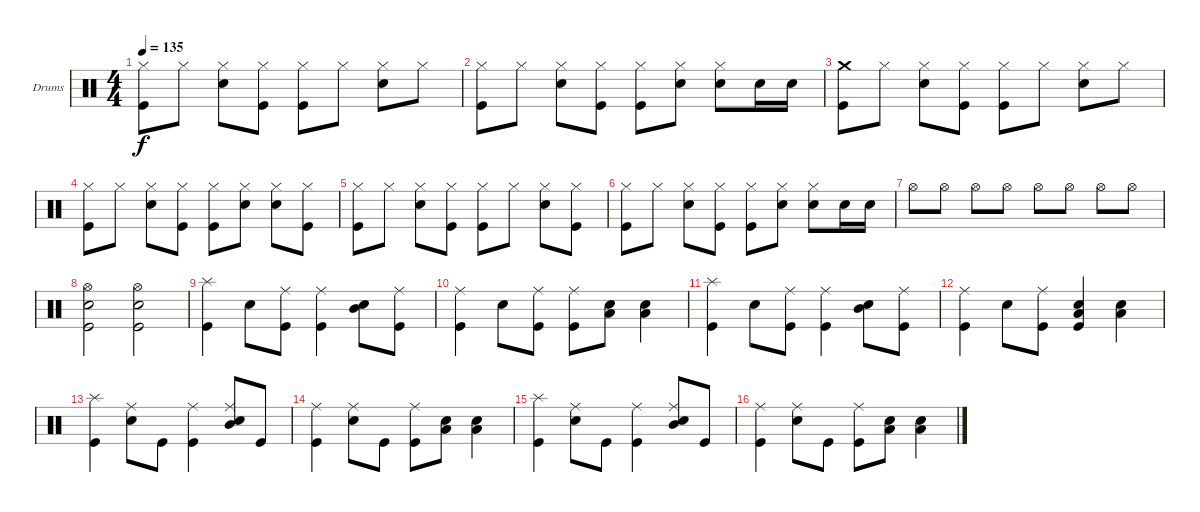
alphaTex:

\bracketExtendMode groupsimilarinstruments
\firstSystemTrackNameOrientation horizontal
\otherSystemsTrackNameOrientation horizontal
\track ("Drumkit" "Drums") {instrument percussion}
\staff {score}
\articulation defaults
\ts (4 4)
\tempo 135
\clef neutral
\ks c
("Hi-Hat (closed)" "Kick (hit)").8{dy f} "Hi-Hat (closed)".8 ("Hi-Hat (closed)" "Snare (hit) 2").8 ("Hi-Hat (closed)" "Kick (hit)").8 ("Hi-Hat (closed)" "Kick (hit)").8 "Hi-Hat (closed)".8 ("Hi-Hat (closed)" "Snare (hit) 2").8 "Hi-Hat (closed)".8 |
("Hi-Hat (closed)" "Kick (hit)").8 "Hi-Hat (closed)".8 ("Hi-Hat (closed)" "Snare (hit) 2").8 ("Hi-Hat (closed)" "Kick (hit)").8 ("Hi-Hat (closed)" "Kick (hit)").8 ("Hi-Hat (closed)" "Snare (hit) 2").8 ("Hi-Hat (closed)" "Snare (hit) 2").8 "Snare (hit) 2".16 "Snare (hit) 2".16 |
("Crash medium (hit)" "Kick (hit)").8 "Hi-Hat (closed)".8 ("Hi-Hat (closed)" "Snare (hit) 2").8 ("Hi-Hat (closed)" "Kick (hit)").8 ("Hi-Hat (closed)" "Kick (hit)").8 "Hi-Hat (closed)".8 ("Hi-Hat (closed)" "Snare (hit) 2").8 "Hi-Hat (closed)".8 |
("Hi-Hat (closed)" "Kick (hit)").8 "Hi-Hat (closed)".8 ("Hi-Hat (closed)" "Snare (hit) 2").8 ("Hi-Hat (closed)" "Kick (hit)").8 ("Hi-Hat (closed)" "Kick (hit)").8 ("Hi-Hat (closed)" "Snare (hit) 2").8 ("Hi-Hat (closed)" "Snare (hit) 2").8 ("Hi-Hat (closed)" "Kick (hit)").8 |
("Hi-Hat (closed)" "Kick (hit)").8 "Hi-Hat (closed)".8 ("Hi-Hat (closed)" "Snare (hit) 2").8 ("Hi-Hat (closed)" "Kick (hit)").8 ("Hi-Hat (closed)" "Kick (hit)").8 "Hi-Hat (closed)".8 ("Hi-Hat (closed)" "Snare (hit) 2").8 ("Hi-Hat (closed)" "Kick (hit)").8 |
("Hi-Hat (closed)" "Kick (hit)").8 "Hi-Hat (closed)".8 ("Hi-Hat (closed)" "Snare (hit) 2").8 ("Hi-Hat (closed)" "Kick (hit)").8 ("Hi-Hat (closed)" "Kick (hit)").8 ("Hi-Hat (closed)" "Snare (hit) 2").8 ("Hi-Hat (closed)" "Snare (hit) 2").8 "Snare (hit) 2".16 "Snare (hit) 2".16 |
"Hi-Hat (open)".8 "Hi-Hat (open)".8 "Hi-Hat (open)".8 "Hi-Hat (open)".8 "Hi-Hat (open)".8 "Hi-Hat (open)".8 "Hi-Hat (open)".8 "Hi-Hat (open)".8 |
("Hi-Hat (open)" "Snare (hit) 2" "Kick (hit)").2 ("Hi-Hat (open)" "Snare (hit) 2" "Kick (hit)").2 |
("Splash (hit)" "Kick (hit)").4 "Snare (hit) 2".8 ("Ride (middle)" "Kick (hit)").8 ("Ride (middle)" "Kick (hit)").4 ("Mid Tom (hit)" "Snare (hit) 2").8 ("Ride (middle)" "Kick (hit)").8 |
("Ride (middle)" "Kick (hit)").4 "Snare (hit) 2".8 ("Ride (middle)" "Kick (hit)").8 ("Ride (middle)" "Kick (hit)").8 ("Low Tom (hit)" "Snare (hit) 2").8 ("Low Tom (hit)" "Snare (hit) 2").4 |
("Splash (hit)" "Kick (hit)").4 "Snare (hit) 2".8 ("Ride (middle)" "Kick (hit)").8 ("Ride (middle)" "Kick (hit)").4 ("Mid Tom (hit)" "Snare (hit) 2").8 ("Ride (middle)" "Kick (hit)").8 |
("Ride (middle)" "Kick (hit)").4 "Snare (hit) 2".8 ("Ride (middle)" "Kick (hit)").8 ("Low Tom (hit)" "Snare (hit) 2" "Kick (hit)").4 ("Low Tom (hit)" "Snare (hit) 2").4 |
("Splash (hit)" "Kick (hit)").4 ("Ride (middle)" "Snare (hit) 2").8 "Kick (hit)".8 ("Ride (middle)" "Kick (hit)").4 ("Ride (middle)" "Mid Tom (hit)" "Snare (hit) 2").8 "Kick (hit)".8 |
("Ride (middle)" "Kick (hit)").4 ("Ride (middle)" "Snare (hit) 2").8 "Kick (hit)".8 ("Ride (middle)" "Kick (hit)").8 ("Low Tom (hit)" "Snare (hit) 2").8 ("Low Tom (hit)" "Snare (hit) 2").4 |
("Splash (hit)" "Kick (hit)").4 ("Ride (middle)" "Snare (hit) 2").8 "Kick (hit)".8 ("Ride (middle)" "Kick (hit)").4 ("Ride (middle)" "Mid Tom (hit)" "Snare (hit) 2").8 "Kick (hit)".8 |
("Ride (middle)" "Kick (hit)").4 ("Ride (middle)" "Snare (hit) 2").8 "Kick (hit)".8 ("Ride (middle)" "Kick (hit)").8 ("Low Tom (hit)" "Snare (hit) 2").8 ("Low Tom (hit)" "Snare (hit) 2").4
